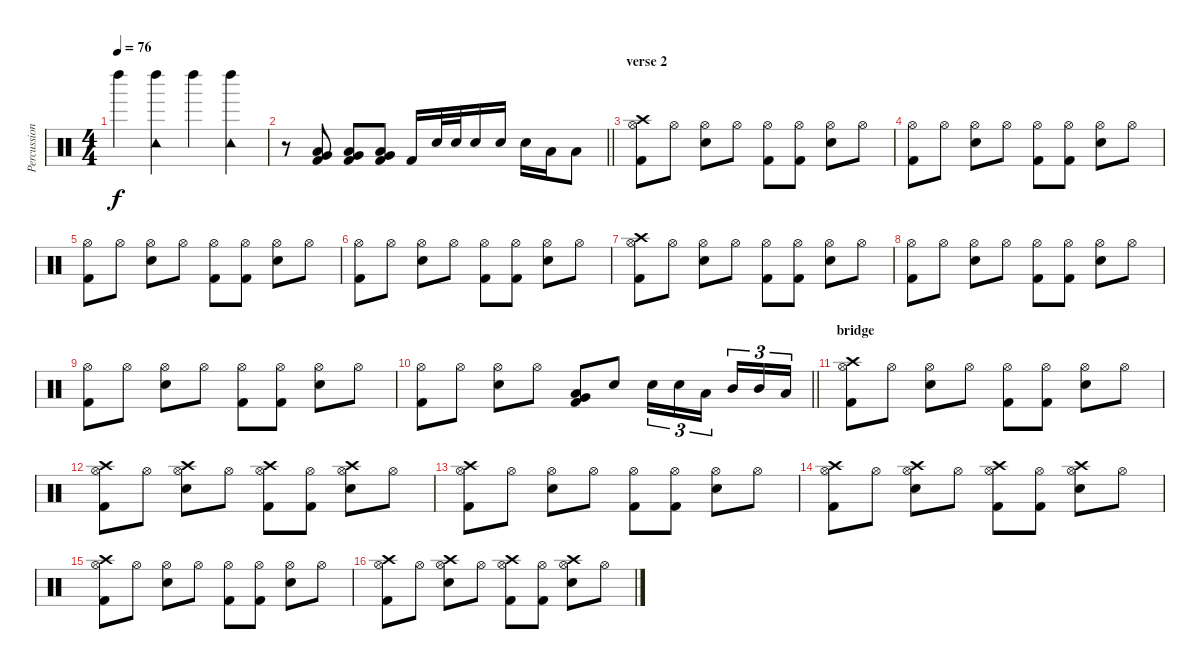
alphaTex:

\track ("Percussioni" "Percussion") {instrument percussion}
\staff {score}
\articulation defaults
\ts (4 4)
\tempo 76
\clef neutral
\ks c "Left Maraca (hit)".4{dy f}
("Left Maraca (hit)" "Tambourine (hit)").4 "Left Maraca (hit)".4 ("Left Maraca (hit)" "Tambourine (hit)").4 |
\barLineRight lightlight
r.8 ("Low Floor Tom (hit)" "Kick (hit) 2" "Very Low Tom (hit)").8 ("Low Floor Tom (hit)" "Kick (hit) 2" "Very Low Tom (hit)").8 ("Low Floor Tom (hit)" "Kick (hit) 2" "Very Low Tom (hit)").8 "Kick (hit) 2".16 "Electric Snare (hit)".32 "Electric Snare (hit)".32 "Electric Snare (hit)".16 "Electric Snare (hit)".16 "Electric Snare (hit)".16 "Low Tom (hit)".16 "Low Tom (hit)".8 |
\section ("" "verse 2")
("Hi-Hat (open)" "Kick (hit) 2" "Crash high (hit)").8 "Hi-Hat (open)".8 ("Hi-Hat (open)" "Electric Snare (hit)").8 "Hi-Hat (open)".8 ("Hi-Hat (open)" "Kick (hit) 2").8 ("Hi-Hat (open)" "Kick (hit) 2").8 ("Hi-Hat (open)" "Electric Snare (hit)").8 "Hi-Hat (open)".8 |
("Hi-Hat (open)" "Kick (hit) 2").8 "Hi-Hat (open)".8 ("Hi-Hat (open)" "Electric Snare (hit)").8 "Hi-Hat (open)".8 ("Hi-Hat (open)" "Kick (hit) 2").8 ("Hi-Hat (open)" "Kick (hit) 2").8 ("Hi-Hat (open)" "Electric Snare (hit)").8 "Hi-Hat (open)".8 |
("Hi-Hat (open)" "Kick (hit) 2").8 "Hi-Hat (open)".8 ("Hi-Hat (open)" "Electric Snare (hit)").8 "Hi-Hat (open)".8 ("Hi-Hat (open)" "Kick (hit) 2").8 ("Hi-Hat (open)" "Kick (hit) 2").8 ("Hi-Hat (open)" "Electric Snare (hit)").8 "Hi-Hat (open)".8 |
("Hi-Hat (open)" "Kick (hit) 2").8 "Hi-Hat (open)".8 ("Hi-Hat (open)" "Electric Snare (hit)").8 "Hi-Hat (open)".8 ("Hi-Hat (open)" "Kick (hit) 2").8 ("Hi-Hat (open)" "Kick (hit) 2").8 ("Hi-Hat (open)" "Electric Snare (hit)").8 "Hi-Hat (open)".8 |
("Hi-Hat (open)" "Kick (hit) 2" "Crash high (hit)").8 "Hi-Hat (open)".8 ("Hi-Hat (open)" "Electric Snare (hit)").8 "Hi-Hat (open)".8 ("Hi-Hat (open)" "Kick (hit) 2").8 ("Hi-Hat (open)" "Kick (hit) 2").8 ("Hi-Hat (open)" "Electric Snare (hit)").8 "Hi-Hat (open)".8 |
("Hi-Hat (open)" "Kick (hit) 2").8 "Hi-Hat (open)".8 ("Hi-Hat (open)" "Electric Snare (hit)").8 "Hi-Hat (open)".8 ("Hi-Hat (open)" "Kick (hit) 2").8 ("Hi-Hat (open)" "Kick (hit) 2").8 ("Hi-Hat (open)" "Electric Snare (hit)").8 "Hi-Hat (open)".8 |
("Hi-Hat (open)" "Kick (hit) 2").8 "Hi-Hat (open)".8 ("Hi-Hat (open)" "Electric Snare (hit)").8 "Hi-Hat (open)".8 ("Hi-Hat (open)" "Kick (hit) 2").8 ("Hi-Hat (open)" "Kick (hit) 2").8 ("Hi-Hat (open)" "Electric Snare (hit)").8 "Hi-Hat (open)".8 |
\barLineRight lightlight
("Hi-Hat (open)" "Kick (hit) 2").8 "Hi-Hat (open)".8 ("Hi-Hat (open)" "Electric Snare (hit)").8 "Hi-Hat (open)".8 ("Kick (hit) 2" "Low Floor Tom (hit)" "Very Low Tom (hit)").8 "Electric Snare (hit)".8 "Electric Snare (hit)".16{tu (3 2)} "Electric Snare (hit)".16{tu (3 2)} "Low Tom (hit)".16{tu (3 2) beam splitsecondary} "Mid Tom (hit)".16{tu (3 2)} "Mid Tom (hit)".16{tu (3 2)} "Low Floor Tom (hit)".16{tu (3 2)} |
\section ("" "bridge")
("Hi-Hat (open)" "Kick (hit) 2" "Crash high (hit)").8 "Hi-Hat (open)".8 ("Hi-Hat (open)" "Electric Snare (hit)").8 "Hi-Hat (open)".8 ("Hi-Hat (open)" "Kick (hit) 2").8 ("Hi-Hat (open)" "Kick (hit) 2").8 ("Hi-Hat (open)" "Electric Snare (hit)").8 "Hi-Hat (open)".8 |
("Hi-Hat (open)" "Kick (hit) 2" "Crash high (hit)").8 "Hi-Hat (open)".8 ("Hi-Hat (open)" "Electric Snare (hit)" "Crash high (hit)").8 "Hi-Hat (open)".8 ("Hi-Hat (open)" "Kick (hit) 2" "Crash high (hit)").8 ("Hi-Hat (open)" "Kick (hit) 2").8 ("Hi-Hat (open)" "Electric Snare (hit)" "Crash high (hit)").8 "Hi-Hat (open)".8 |
("Hi-Hat (open)" "Kick (hit) 2" "Crash high (hit)").8 "Hi-Hat (open)".8 ("Hi-Hat (open)" "Electric Snare (hit)").8 "Hi-Hat (open)".8 ("Hi-Hat (open)" "Kick (hit) 2").8 ("Hi-Hat (open)" "Kick (hit) 2").8 ("Hi-Hat (open)" "Electric Snare (hit)").8 "Hi-Hat (open)".8 |
("Hi-Hat (open)" "Kick (hit) 2" "Crash high (hit)").8 "Hi-Hat (open)".8 ("Hi-Hat (open)" "Electric Snare (hit)" "Crash high (hit)").8 "Hi-Hat (open)".8 ("Hi-Hat (open)" "Kick (hit) 2" "Crash high (hit)").8 ("Hi-Hat (open)" "Kick (hit) 2").8 ("Hi-Hat (open)" "Electric Snare (hit)" "Crash high (hit)").8 "Hi-Hat (open)".8 |
("Hi-Hat (open)" "Kick (hit) 2" "Crash high (hit)").8 "Hi-Hat (open)".8 ("Hi-Hat (open)" "Electric Snare (hit)").8 "Hi-Hat (open)".8 ("Hi-Hat (open)" "Kick (hit) 2").8 ("Hi-Hat (open)" "Kick (hit) 2").8 ("Hi-Hat (open)" "Electric Snare (hit)").8 "Hi-Hat (open)".8 |
("Hi-Hat (open)" "Kick (hit) 2" "Crash high (hit)").8 "Hi-Hat (open)".8 ("Hi-Hat (open)" "Electric Snare (hit)" "Crash high (hit)").8 "Hi-Hat (open)".8 ("Hi-Hat (open)" "Kick (hit) 2" "Crash high (hit)").8 ("Hi-Hat (open)" "Kick (hit) 2").8 ("Hi-Hat (open)" "Electric Snare (hit)" "Crash high (hit)").8 "Hi-Hat (open)".8
